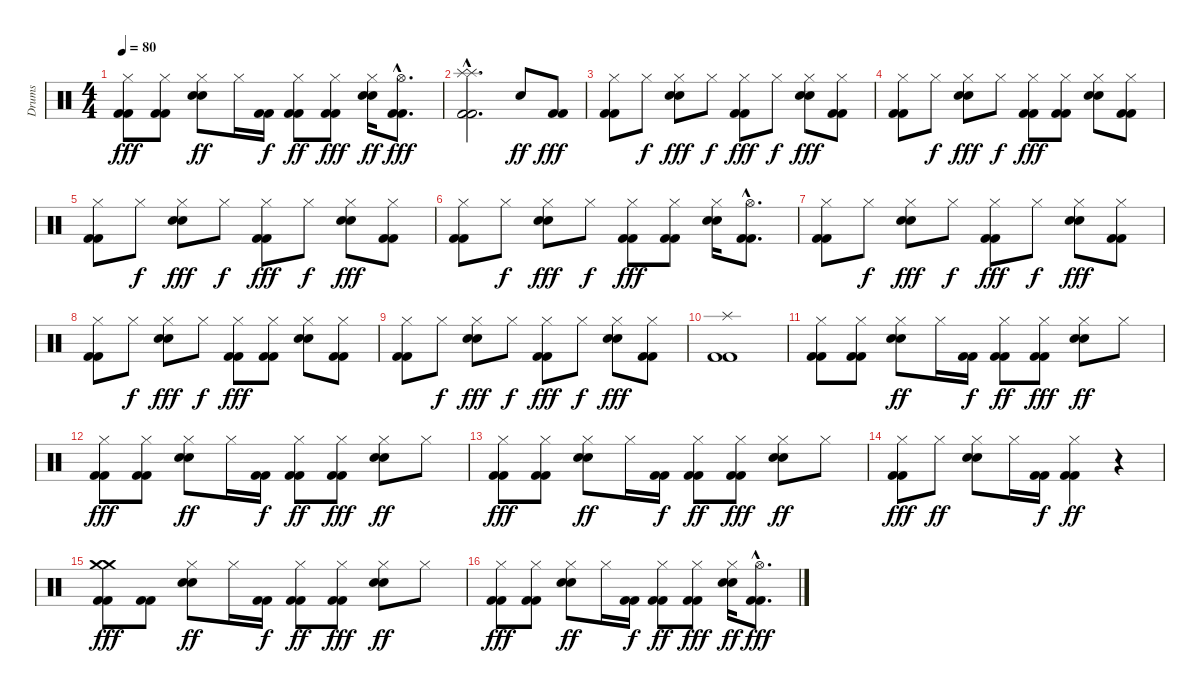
\track ("Drums" "Drums") {instrument percussion}
\staff {score}
\articulation defaults
\ts (4 4)
\tempo 80
\clef neutral
\ks c
("Hi-Hat (closed)" "Kick (hit) 2" "Kick (hit) 2").8{dy fff} ("Hi-Hat (closed)" "Kick (hit) 2" "Kick (hit) 2").8 ("Hi-Hat (closed)" "Electric Snare (hit)" "Electric Snare (hit)").8{dy ff} "Hi-Hat (closed)".16 ("Kick (hit) 2" "Kick (hit) 2").16{dy f} ("Hi-Hat (closed)" "Kick (hit) 2" "Kick (hit) 2").8{dy ff} ("Hi-Hat (closed)" "Kick (hit) 2" "Kick (hit) 2").8{dy fff} ("Hi-Hat (closed)" "Electric Snare (hit)" "Electric Snare (hit)").16{dy ff} ("Hi-Hat (open)"{hac} "Kick (hit) 2"{hac} "Kick (hit) 2"{hac}).8{d dy fff} |
("Splash (hit)"{hac} "Splash (hit)"{hac} "Kick (hit) 2"{hac} "Kick (hit) 2"{hac}).2{d} "Electric Snare (hit)".8{dy ff} ("Kick (hit) 2" "Kick (hit) 2").8{dy fff} |
("Hi-Hat (closed)" "Kick (hit) 2" "Kick (hit) 2").8 "Hi-Hat (closed)".8{dy f} ("Hi-Hat (closed)" "Electric Snare (hit)" "Electric Snare (hit)").8{dy fff} "Hi-Hat (closed)".8{dy f} ("Hi-Hat (closed)" "Kick (hit) 2" "Kick (hit) 2").8{dy fff} "Hi-Hat (closed)".8{dy f} ("Hi-Hat (closed)" "Electric Snare (hit)" "Electric Snare (hit)").8{dy fff} ("Hi-Hat (closed)" "Kick (hit) 2" "Kick (hit) 2").8 |
("Hi-Hat (closed)" "Kick (hit) 2" "Kick (hit) 2").8 "Hi-Hat (closed)".8{dy f} ("Hi-Hat (closed)" "Electric Snare (hit)" "Electric Snare (hit)").8{dy fff} "Hi-Hat (closed)".8{dy f} ("Hi-Hat (closed)" "Kick (hit) 2" "Kick (hit) 2").8{dy fff} ("Hi-Hat (closed)" "Kick (hit) 2" "Kick (hit) 2").8 ("Hi-Hat (closed)" "Electric Snare (hit)" "Electric Snare (hit)").8 ("Hi-Hat (closed)" "Kick (hit) 2" "Kick (hit) 2").8 |
("Hi-Hat (closed)" "Kick (hit) 2" "Kick (hit) 2").8 "Hi-Hat (closed)".8{dy f} ("Hi-Hat (closed)" "Electric Snare (hit)" "Electric Snare (hit)").8{dy fff} "Hi-Hat (closed)".8{dy f} ("Hi-Hat (closed)" "Kick (hit) 2" "Kick (hit) 2").8{dy fff} "Hi-Hat (closed)".8{dy f} ("Hi-Hat (closed)" "Electric Snare (hit)" "Electric Snare (hit)").8{dy fff} ("Hi-Hat (closed)" "Kick (hit) 2" "Kick (hit) 2").8 |
("Hi-Hat (closed)" "Kick (hit) 2" "Kick (hit) 2").8 "Hi-Hat (closed)".8{dy f} ("Hi-Hat (closed)" "Electric Snare (hit)" "Electric Snare (hit)").8{dy fff} "Hi-Hat (closed)".8{dy f} ("Hi-Hat (closed)" "Kick (hit) 2" "Kick (hit) 2").8{dy fff} ("Hi-Hat (closed)" "Kick (hit) 2" "Kick (hit) 2").8 ("Hi-Hat (closed)" "Electric Snare (hit)" "Electric Snare (hit)").16 ("Hi-Hat (open)"{hac} "Kick (hit) 2"{hac} "Kick (hit) 2"{hac}).8{d} |
("Hi-Hat (closed)" "Kick (hit) 2" "Kick (hit) 2").8 "Hi-Hat (closed)".8{dy f} ("Hi-Hat (closed)" "Electric Snare (hit)" "Electric Snare (hit)").8{dy fff} "Hi-Hat (closed)".8{dy f} ("Hi-Hat (closed)" "Kick (hit) 2" "Kick (hit) 2").8{dy fff} "Hi-Hat (closed)".8{dy f} ("Hi-Hat (closed)" "Electric Snare (hit)" "Electric Snare (hit)").8{dy fff} ("Hi-Hat (closed)" "Kick (hit) 2" "Kick (hit) 2").8 |
("Hi-Hat (closed)" "Kick (hit) 2" "Kick (hit) 2").8 "Hi-Hat (closed)".8{dy f} ("Hi-Hat (closed)" "Electric Snare (hit)" "Electric Snare (hit)").8{dy fff} "Hi-Hat (closed)".8{dy f} ("Hi-Hat (closed)" "Kick (hit) 2" "Kick (hit) 2").8{dy fff} ("Hi-Hat (closed)" "Kick (hit) 2" "Kick (hit) 2").8 ("Hi-Hat (closed)" "Electric Snare (hit)" "Electric Snare (hit)").8 ("Hi-Hat (closed)" "Kick (hit) 2" "Kick (hit) 2").8 |
("Hi-Hat (closed)" "Kick (hit) 2" "Kick (hit) 2").8 "Hi-Hat (closed)".8{dy f} ("Hi-Hat (closed)" "Electric Snare (hit)" "Electric Snare (hit)").8{dy fff} "Hi-Hat (closed)".8{dy f} ("Hi-Hat (closed)" "Kick (hit) 2" "Kick (hit) 2").8{dy fff} "Hi-Hat (closed)".8{dy f} ("Hi-Hat (closed)" "Electric Snare (hit)" "Electric Snare (hit)").8{dy fff} ("Hi-Hat (closed)" "Kick (hit) 2" "Kick (hit) 2").8 |
("Splash (hit)" "Kick (hit) 2" "Kick (hit) 2").1 |
("Hi-Hat (closed)" "Kick (hit) 2" "Kick (hit) 2").8 ("Hi-Hat (closed)" "Kick (hit) 2" "Kick (hit) 2").8 ("Hi-Hat (closed)" "Electric Snare (hit)" "Electric Snare (hit)").8{dy ff} "Hi-Hat (closed)".16 ("Kick (hit) 2" "Kick (hit) 2").16{dy f} ("Hi-Hat (closed)" "Kick (hit) 2" "Kick (hit) 2").8{dy ff} ("Hi-Hat (closed)" "Kick (hit) 2" "Kick (hit) 2").8{dy fff} ("Hi-Hat (closed)" "Electric Snare (hit)" "Electric Snare (hit)").8{dy ff} "Hi-Hat (closed)".8 |
("Hi-Hat (closed)" "Kick (hit) 2" "Kick (hit) 2").8{dy fff} ("Hi-Hat (closed)" "Kick (hit) 2" "Kick (hit) 2").8 ("Hi-Hat (closed)" "Electric Snare (hit)" "Electric Snare (hit)").8{dy ff} "Hi-Hat (closed)".16 ("Kick (hit) 2" "Kick (hit) 2").16{dy f} ("Hi-Hat (closed)" "Kick (hit) 2" "Kick (hit) 2").8{dy ff} ("Hi-Hat (closed)" "Kick (hit) 2" "Kick (hit) 2").8{dy fff} ("Hi-Hat (closed)" "Electric Snare (hit)" "Electric Snare (hit)").8{dy ff} "Hi-Hat (closed)".8 |
("Hi-Hat (closed)" "Kick (hit) 2" "Kick (hit) 2").8{dy fff} ("Hi-Hat (closed)" "Kick (hit) 2" "Kick (hit) 2").8 ("Hi-Hat (closed)" "Electric Snare (hit)" "Electric Snare (hit)").8{dy ff} "Hi-Hat (closed)".16 ("Kick (hit) 2" "Kick (hit) 2").16{dy f} ("Hi-Hat (closed)" "Kick (hit) 2" "Kick (hit) 2").8{dy ff} ("Hi-Hat (closed)" "Kick (hit) 2" "Kick (hit) 2").8{dy fff} ("Hi-Hat (closed)" "Electric Snare (hit)" "Electric Snare (hit)").8{dy ff} "Hi-Hat (closed)".8 |
("Hi-Hat (closed)" "Kick (hit) 2" "Kick (hit) 2").8{dy fff} "Hi-Hat (closed)".8{dy ff} ("Hi-Hat (closed)" "Electric Snare (hit)" "Electric Snare (hit)").8 "Hi-Hat (closed)".16 ("Kick (hit) 2" "Kick (hit) 2").16{dy f} ("Hi-Hat (closed)" "Kick (hit) 2" "Kick (hit) 2").4{dy ff} r.4 |
("Crash medium (hit)" "Crash medium (hit)" "Kick (hit) 2" "Kick (hit) 2").8{dy fff} ("Kick (hit) 2" "Kick (hit) 2").8 ("Hi-Hat (closed)" "Electric Snare (hit)" "Electric Snare (hit)").8{dy ff} "Hi-Hat (closed)".16 ("Kick (hit) 2" "Kick (hit) 2").16{dy f} ("Hi-Hat (closed)" "Kick (hit) 2" "Kick (hit) 2").8{dy ff} ("Hi-Hat (closed)" "Kick (hit) 2" "Kick (hit) 2").8{dy fff} ("Hi-Hat (closed)" "Electric Snare (hit)" "Electric Snare (hit)").8{dy ff} "Hi-Hat (closed)".8 |
("Hi-Hat (closed)" "Kick (hit) 2" "Kick (hit) 2").8{dy fff} ("Hi-Hat (closed)" "Kick (hit) 2" "Kick (hit) 2").8 ("Hi-Hat (closed)" "Electric Snare (hit)" "Electric Snare (hit)").8{dy ff} "Hi-Hat (closed)".16 ("Kick (hit) 2" "Kick (hit) 2").16{dy f} ("Hi-Hat (closed)" "Kick (hit) 2" "Kick (hit) 2").8{dy ff} ("Hi-Hat (closed)" "Kick (hit) 2" "Kick (hit) 2").8{dy fff} ("Hi-Hat (closed)" "Electric Snare (hit)" "Electric Snare (hit)").16{dy ff} ("Hi-Hat (open)"{hac} "Kick (hit) 2"{hac} "Kick (hit) 2"{hac}).8{d dy fff}
